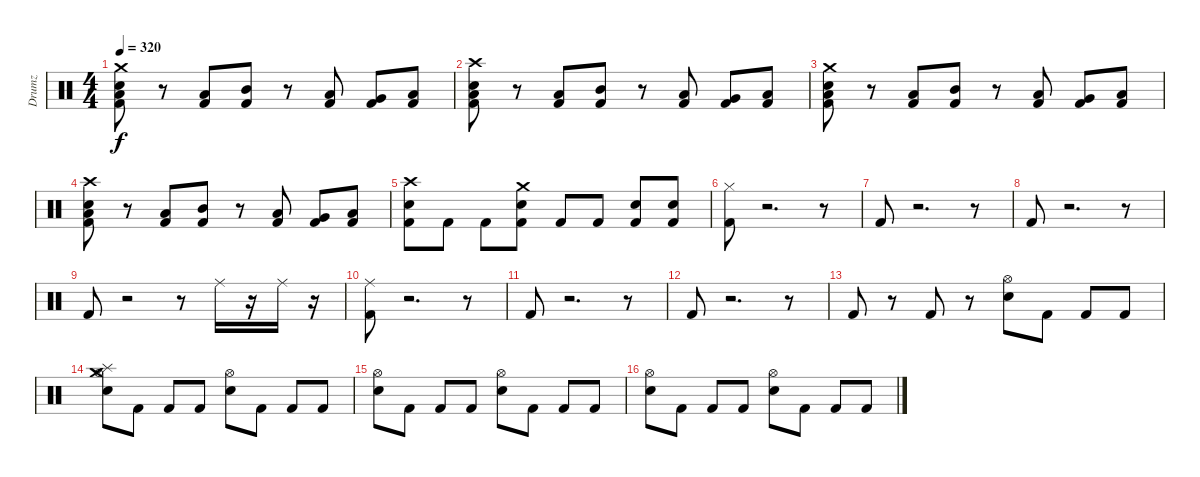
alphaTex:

\track ("Drumz" "Drumz") {instrument percussion}
\staff {score}
\articulation defaults
\ts (4 4)
\tempo 320
\clef neutral
\ks c
("Crash medium (hit)" "Snare (hit) 2" "Kick (hit) 2" "Low Tom (hit)").8{dy f} r.8 ("Kick (hit) 2" "Low Tom (hit)").8 ("Kick (hit) 2" "Mid Tom (hit)").8 r.8 ("Kick (hit) 2" "Low Tom (hit)").8 ("Kick (hit) 2" "Very Low Tom (hit)").8 ("Low Floor Tom (hit)" "Kick (hit) 2").8 |
("Crash high (hit)" "Snare (hit) 2" "Kick (hit) 2" "Low Tom (hit)").8 r.8 ("Kick (hit) 2" "Low Tom (hit)").8 ("Kick (hit) 2" "Mid Tom (hit)").8 r.8 ("Kick (hit) 2" "Low Tom (hit)").8 ("Kick (hit) 2" "Very Low Tom (hit)").8 ("Low Floor Tom (hit)" "Kick (hit) 2").8 |
("Crash medium (hit)" "Snare (hit) 2" "Kick (hit) 2" "Low Tom (hit)").8 r.8 ("Kick (hit) 2" "Low Tom (hit)").8 ("Kick (hit) 2" "Mid Tom (hit)").8 r.8 ("Kick (hit) 2" "Low Tom (hit)").8 ("Kick (hit) 2" "Very Low Tom (hit)").8 ("Low Floor Tom (hit)" "Kick (hit) 2").8 |
("Crash high (hit)" "Snare (hit) 2" "Kick (hit) 2" "Low Tom (hit)").8 r.8 ("Kick (hit) 2" "Low Tom (hit)").8 ("Kick (hit) 2" "Mid Tom (hit)").8 r.8 ("Kick (hit) 2" "Low Tom (hit)").8 ("Kick (hit) 2" "Very Low Tom (hit)").8 ("Low Floor Tom (hit)" "Kick (hit) 2").8 |
("Crash high (hit)" "Snare (hit) 2" "Kick (hit) 2").8 "Kick (hit) 2".8 "Kick (hit) 2".8 ("Crash medium (hit)" "Snare (hit) 2" "Kick (hit) 2").8 "Kick (hit) 2".8 "Kick (hit) 2".8 ("Snare (hit) 2" "Kick (hit) 2").8 ("Snare (hit) 2" "Kick (hit) 2").8 |
("Kick (hit) 2" "Hi-Hat (closed)").8 r.2{d} r.8 |
"Kick (hit) 2".8 r.2{d} r.8 |
"Kick (hit) 2".8 r.2{d} r.8 |
"Kick (hit) 2".8 r.2 r.8 "Ride (middle)".16 r.16 "Ride (middle)".16 r.16 |
("Kick (hit) 2" "Ride (middle)").8 r.2{d} r.8 |
"Kick (hit) 2".8 r.2{d} r.8 |
"Kick (hit) 2".8 r.2{d} r.8 |
"Kick (hit) 2".8 r.8 "Kick (hit) 2".8 r.8 ("Snare (hit) 2" "Hi-Hat (open)").8 "Kick (hit) 2".8 "Kick (hit) 2".8 "Kick (hit) 2".8 |
("Snare (hit) 2" "Hi-Hat (open)" "Splash (hit)" "Crash medium (hit)").8 "Kick (hit) 2".8 "Kick (hit) 2".8 "Kick (hit) 2".8 ("Snare (hit) 2" "Hi-Hat (open)").8 "Kick (hit) 2".8 "Kick (hit) 2".8 "Kick (hit) 2".8 |
("Snare (hit) 2" "Hi-Hat (open)").8 "Kick (hit) 2".8 "Kick (hit) 2".8 "Kick (hit) 2".8 ("Snare (hit) 2" "Hi-Hat (open)").8 "Kick (hit) 2".8 "Kick (hit) 2".8 "Kick (hit) 2".8 |
("Hi-Hat (open)" "Snare (hit) 2").8 "Kick (hit) 2".8 "Kick (hit) 2".8 "Kick (hit) 2".8 ("Hi-Hat (open)" "Snare (hit) 2").8 "Kick (hit) 2".8 "Kick (hit) 2".8 "Kick (hit) 2".8
